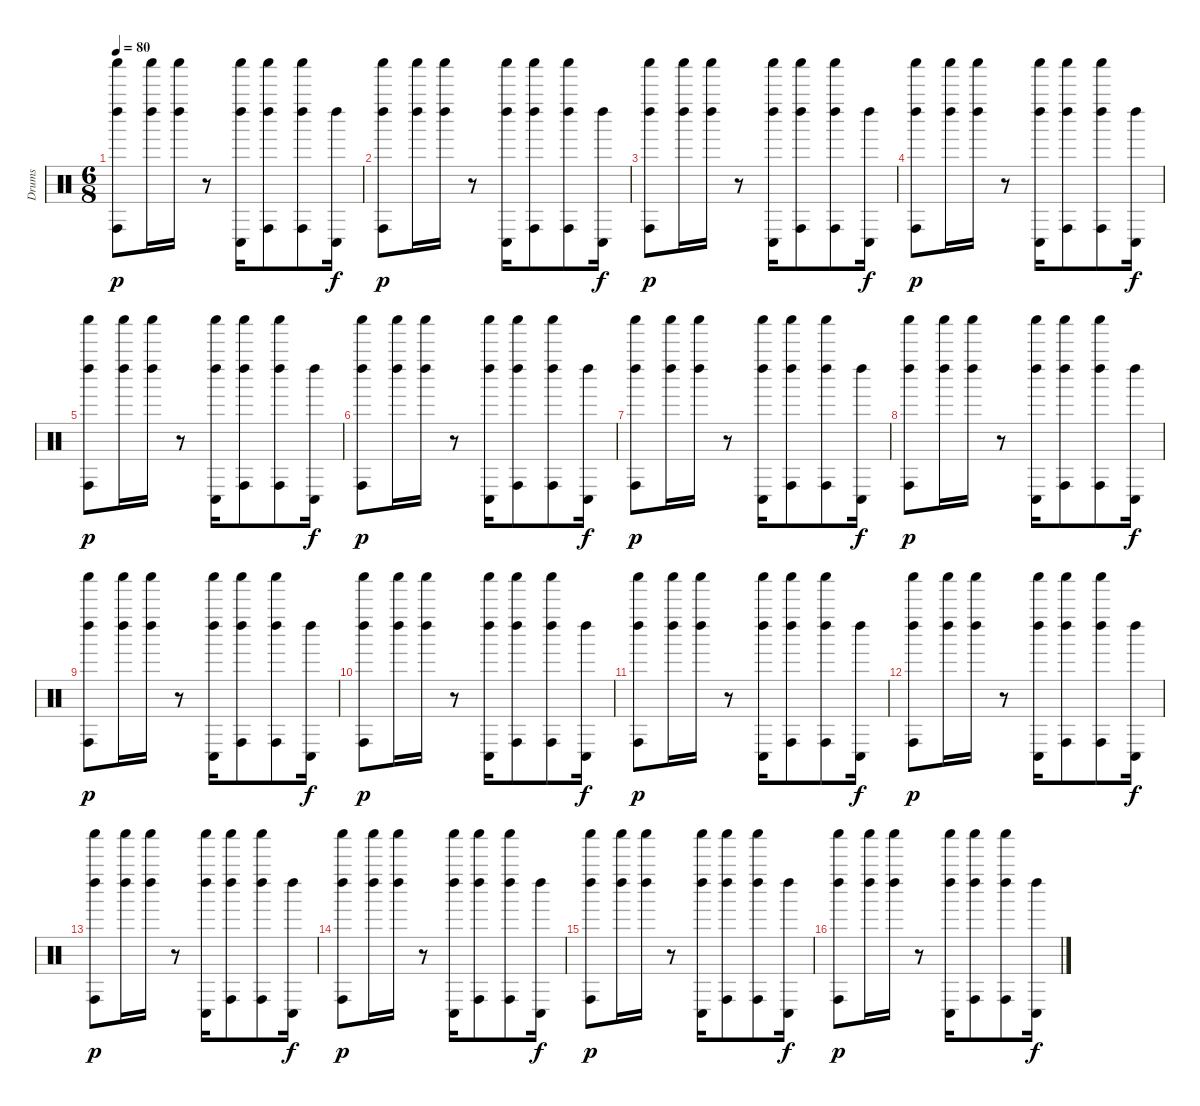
\track ("Drums" "Drums") {instrument percussion}
\staff {score}
\articulation defaults
\ts (6 8)
\tempo 80
\clef neutral
\ks c
("Conga high (hit)" "Shaker (hit)" "Left Maraca (hit)").8{dy p balance 8} ("Shaker (hit)" "Left Maraca (hit)").16 ("Shaker (hit)" "Left Maraca (hit)").16 r.8 ("Conga low (hit)" "Shaker (hit)" "Left Maraca (hit)").16{balance 8} ("Conga high (hit)" "Shaker (hit)" "Left Maraca (hit)").8{balance 0} ("Conga high (hit)" "Shaker (hit)" "Left Maraca (hit)").8{balance 8} ("Conga low (hit)" "Left Maraca (hit)").16{dy f balance 0} |
("Conga high (hit)" "Shaker (hit)" "Left Maraca (hit)").8{dy p balance 8} ("Shaker (hit)" "Left Maraca (hit)").16 ("Shaker (hit)" "Left Maraca (hit)").16 r.8 ("Conga low (hit)" "Shaker (hit)" "Left Maraca (hit)").16{balance 8} ("Conga high (hit)" "Shaker (hit)" "Left Maraca (hit)").8{balance 16} ("Conga high (hit)" "Shaker (hit)" "Left Maraca (hit)").8{balance 8} ("Conga low (hit)" "Left Maraca (hit)").16{dy f balance 16} |
("Conga high (hit)" "Shaker (hit)" "Left Maraca (hit)").8{dy p balance 8} ("Shaker (hit)" "Left Maraca (hit)").16 ("Shaker (hit)" "Left Maraca (hit)").16 r.8 ("Conga low (hit)" "Shaker (hit)" "Left Maraca (hit)").16{balance 8} ("Conga high (hit)" "Shaker (hit)" "Left Maraca (hit)").8{balance 16} ("Conga high (hit)" "Shaker (hit)" "Left Maraca (hit)").8{balance 8} ("Conga low (hit)" "Left Maraca (hit)").16{dy f balance 16} |
("Conga high (hit)" "Shaker (hit)" "Left Maraca (hit)").8{dy p balance 8} ("Shaker (hit)" "Left Maraca (hit)").16 ("Shaker (hit)" "Left Maraca (hit)").16 r.8 ("Conga low (hit)" "Shaker (hit)" "Left Maraca (hit)").16{balance 8} ("Conga high (hit)" "Shaker (hit)" "Left Maraca (hit)").8{balance 0} ("Conga high (hit)" "Shaker (hit)" "Left Maraca (hit)").8{balance 8} ("Conga low (hit)" "Left Maraca (hit)").16{dy f balance 0} |
("Conga high (hit)" "Shaker (hit)" "Left Maraca (hit)").8{dy p balance 8} ("Shaker (hit)" "Left Maraca (hit)").16 ("Shaker (hit)" "Left Maraca (hit)").16 r.8 ("Conga low (hit)" "Shaker (hit)" "Left Maraca (hit)").16{balance 8} ("Conga high (hit)" "Shaker (hit)" "Left Maraca (hit)").8{balance 0} ("Conga high (hit)" "Shaker (hit)" "Left Maraca (hit)").8{balance 8} ("Conga low (hit)" "Left Maraca (hit)").16{dy f balance 0} |
("Conga high (hit)" "Shaker (hit)" "Left Maraca (hit)").8{dy p balance 8} ("Shaker (hit)" "Left Maraca (hit)").16 ("Shaker (hit)" "Left Maraca (hit)").16 r.8 ("Conga low (hit)" "Shaker (hit)" "Left Maraca (hit)").16{balance 8} ("Conga high (hit)" "Shaker (hit)" "Left Maraca (hit)").8{balance 16} ("Conga high (hit)" "Shaker (hit)" "Left Maraca (hit)").8{balance 8} ("Conga low (hit)" "Left Maraca (hit)").16{dy f balance 16} |
("Conga high (hit)" "Shaker (hit)" "Left Maraca (hit)").8{dy p balance 8} ("Shaker (hit)" "Left Maraca (hit)").16 ("Shaker (hit)" "Left Maraca (hit)").16 r.8 ("Conga low (hit)" "Shaker (hit)" "Left Maraca (hit)").16{balance 8} ("Conga high (hit)" "Shaker (hit)" "Left Maraca (hit)").8{balance 16} ("Conga high (hit)" "Shaker (hit)" "Left Maraca (hit)").8{balance 8} ("Conga low (hit)" "Left Maraca (hit)").16{dy f balance 16} |
("Conga high (hit)" "Shaker (hit)" "Left Maraca (hit)").8{dy p balance 8} ("Shaker (hit)" "Left Maraca (hit)").16 ("Shaker (hit)" "Left Maraca (hit)").16 r.8 ("Conga low (hit)" "Shaker (hit)" "Left Maraca (hit)").16{balance 8} ("Conga high (hit)" "Shaker (hit)" "Left Maraca (hit)").8{balance 0} ("Conga high (hit)" "Shaker (hit)" "Left Maraca (hit)").8{balance 8} ("Conga low (hit)" "Left Maraca (hit)").16{dy f balance 0} |
("Conga high (hit)" "Shaker (hit)" "Left Maraca (hit)").8{dy p balance 8} ("Shaker (hit)" "Left Maraca (hit)").16 ("Shaker (hit)" "Left Maraca (hit)").16 r.8 ("Conga low (hit)" "Shaker (hit)" "Left Maraca (hit)").16{balance 8} ("Conga high (hit)" "Shaker (hit)" "Left Maraca (hit)").8{balance 0} ("Conga high (hit)" "Shaker (hit)" "Left Maraca (hit)").8{balance 8} ("Conga low (hit)" "Left Maraca (hit)").16{dy f balance 0} |
("Conga high (hit)" "Shaker (hit)" "Left Maraca (hit)").8{dy p balance 8} ("Shaker (hit)" "Left Maraca (hit)").16 ("Shaker (hit)" "Left Maraca (hit)").16 r.8 ("Conga low (hit)" "Shaker (hit)" "Left Maraca (hit)").16{balance 8} ("Conga high (hit)" "Shaker (hit)" "Left Maraca (hit)").8{balance 16} ("Conga high (hit)" "Shaker (hit)" "Left Maraca (hit)").8{balance 8} ("Conga low (hit)" "Left Maraca (hit)").16{dy f balance 16} |
("Conga high (hit)" "Shaker (hit)" "Left Maraca (hit)").8{dy p balance 8} ("Shaker (hit)" "Left Maraca (hit)").16 ("Shaker (hit)" "Left Maraca (hit)").16 r.8 ("Conga low (hit)" "Shaker (hit)" "Left Maraca (hit)").16{balance 8} ("Conga high (hit)" "Shaker (hit)" "Left Maraca (hit)").8{balance 16} ("Conga high (hit)" "Shaker (hit)" "Left Maraca (hit)").8{balance 8} ("Conga low (hit)" "Left Maraca (hit)").16{dy f balance 16} |
("Conga high (hit)" "Shaker (hit)" "Left Maraca (hit)").8{dy p balance 8} ("Shaker (hit)" "Left Maraca (hit)").16 ("Shaker (hit)" "Left Maraca (hit)").16 r.8 ("Conga low (hit)" "Shaker (hit)" "Left Maraca (hit)").16{balance 8} ("Conga high (hit)" "Shaker (hit)" "Left Maraca (hit)").8{balance 0} ("Conga high (hit)" "Shaker (hit)" "Left Maraca (hit)").8{balance 8} ("Conga low (hit)" "Left Maraca (hit)").16{dy f balance 0} |
("Conga high (hit)" "Shaker (hit)" "Left Maraca (hit)").8{dy p balance 8} ("Shaker (hit)" "Left Maraca (hit)").16 ("Shaker (hit)" "Left Maraca (hit)").16 r.8 ("Conga low (hit)" "Shaker (hit)" "Left Maraca (hit)").16{balance 8} ("Conga high (hit)" "Shaker (hit)" "Left Maraca (hit)").8{balance 0} ("Conga high (hit)" "Shaker (hit)" "Left Maraca (hit)").8{balance 8} ("Conga low (hit)" "Left Maraca (hit)").16{dy f balance 0} |
("Conga high (hit)" "Shaker (hit)" "Left Maraca (hit)").8{dy p balance 8} ("Shaker (hit)" "Left Maraca (hit)").16 ("Shaker (hit)" "Left Maraca (hit)").16 r.8 ("Conga low (hit)" "Shaker (hit)" "Left Maraca (hit)").16{balance 8} ("Conga high (hit)" "Shaker (hit)" "Left Maraca (hit)").8{balance 16} ("Conga high (hit)" "Shaker (hit)" "Left Maraca (hit)").8{balance 8} ("Conga low (hit)" "Left Maraca (hit)").16{dy f balance 16} |
("Conga high (hit)" "Shaker (hit)" "Left Maraca (hit)").8{dy p balance 8} ("Shaker (hit)" "Left Maraca (hit)").16 ("Shaker (hit)" "Left Maraca (hit)").16 r.8 ("Conga low (hit)" "Shaker (hit)" "Left Maraca (hit)").16{balance 8} ("Conga high (hit)" "Shaker (hit)" "Left Maraca (hit)").8{balance 16} ("Conga high (hit)" "Shaker (hit)" "Left Maraca (hit)").8{balance 8} ("Conga low (hit)" "Left Maraca (hit)").16{dy f balance 16} |
("Conga high (hit)" "Shaker (hit)" "Left Maraca (hit)").8{dy p balance 8} ("Shaker (hit)" "Left Maraca (hit)").16 ("Shaker (hit)" "Left Maraca (hit)").16 r.8 ("Conga low (hit)" "Shaker (hit)" "Left Maraca (hit)").16{balance 8} ("Conga high (hit)" "Shaker (hit)" "Left Maraca (hit)").8{balance 0} ("Conga high (hit)" "Shaker (hit)" "Left Maraca (hit)").8{balance 8} ("Conga low (hit)" "Left Maraca (hit)").16{dy f balance 0}
